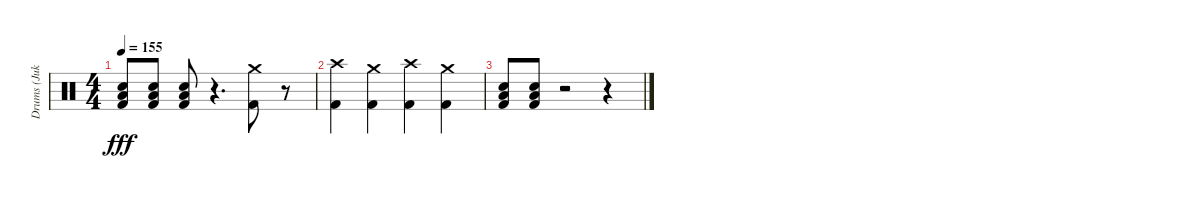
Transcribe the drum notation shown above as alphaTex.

\track ("Drums (Jukka)" "Drums (Juk") {instrument percussion}
\staff {score}
\articulation defaults
\ts (4 4)
\tempo 155
\clef neutral
\ks c
("Kick (hit) 2" "Snare (hit) 2" "Low Floor Tom (hit)").8{dy fff} ("Kick (hit) 2" "Snare (hit) 2" "Low Floor Tom (hit)").8 ("Kick (hit) 2" "Snare (hit) 2" "Low Floor Tom (hit)").8 r.4{d} ("Kick (hit) 2" "Crash medium (hit)").8 r.8 |
("Kick (hit) 2" "Crash high (hit)").4 ("Kick (hit) 2" "Crash medium (hit)").4 ("Kick (hit) 2" "Crash high (hit)").4 ("Kick (hit) 2" "Crash medium (hit)").4 |
("Kick (hit) 2" "Snare (hit) 2" "Low Floor Tom (hit)").8 ("Low Floor Tom (hit)" "Snare (hit) 2" "Kick (hit) 2").8 r.2 r.4
